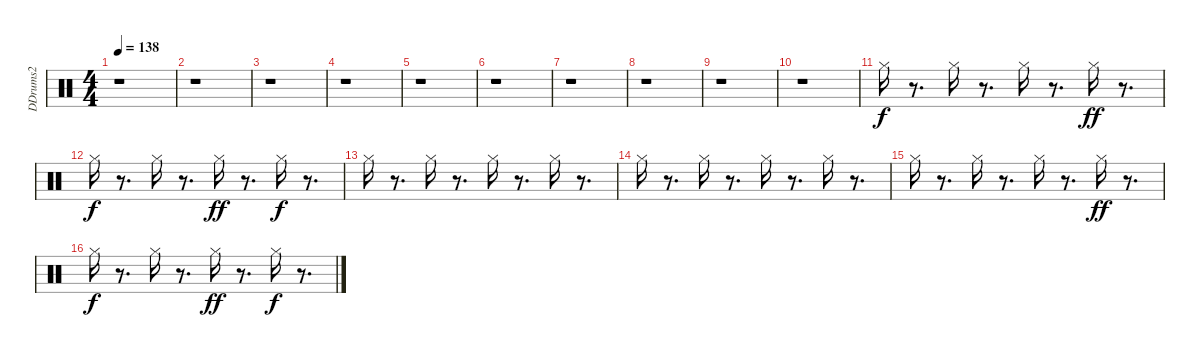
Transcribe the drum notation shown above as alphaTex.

\track ("DDrums2" "DDrums2") {instrument percussion}
\staff {score}
\articulation defaults
\ts (4 4)
\tempo 138
\clef neutral
\ks c
r.1{dy f} |
r.1 |
r.1 |
r.1 |
r.1 |
r.1 |
r.1 |
r.1 |
r.1 |
r.1 |
"Hi-Hat (closed)".16 r.8{d} "Hi-Hat (closed)".16 r.8{d} "Hi-Hat (closed)".16 r.8{d} "Hi-Hat (closed)".16{dy ff} r.8{d} |
"Hi-Hat (closed)".16{dy f} r.8{d} "Hi-Hat (closed)".16 r.8{d} "Hi-Hat (closed)".16{dy ff} r.8{d} "Hi-Hat (closed)".16{dy f} r.8{d} |
"Hi-Hat (closed)".16 r.8{d} "Hi-Hat (closed)".16 r.8{d} "Hi-Hat (closed)".16 r.8{d} "Hi-Hat (closed)".16 r.8{d} |
"Hi-Hat (closed)".16 r.8{d} "Hi-Hat (closed)".16 r.8{d} "Hi-Hat (closed)".16 r.8{d} "Hi-Hat (closed)".16 r.8{d} |
"Hi-Hat (closed)".16 r.8{d} "Hi-Hat (closed)".16 r.8{d} "Hi-Hat (closed)".16 r.8{d} "Hi-Hat (closed)".16{dy ff} r.8{d} |
"Hi-Hat (closed)".16{dy f} r.8{d} "Hi-Hat (closed)".16 r.8{d} "Hi-Hat (closed)".16{dy ff} r.8{d} "Hi-Hat (closed)".16{dy f} r.8{d}
